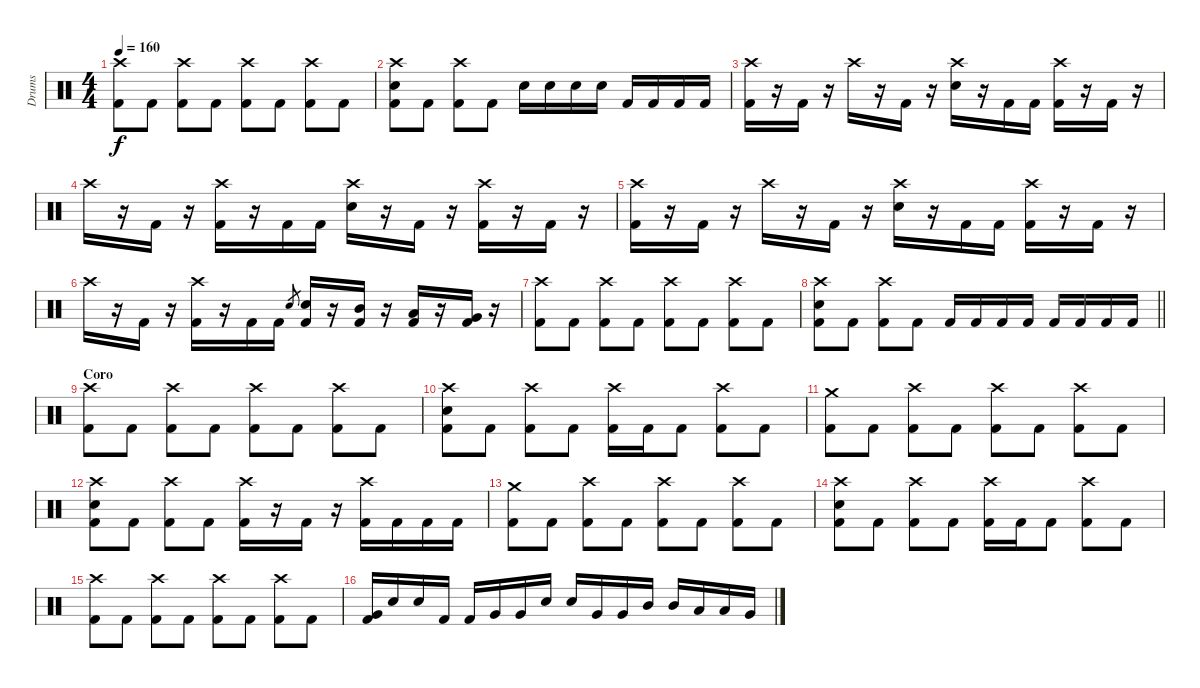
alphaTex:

\track ("Drums" "Drums") {instrument percussion}
\staff {score}
\articulation defaults
\ts (4 4)
\tempo 160
\clef neutral
\ks c
("Crash high (hit)" "Kick (hit) 2").8{dy f} "Kick (hit) 2".8 ("Crash high (hit)" "Kick (hit) 2").8 "Kick (hit) 2".8 ("Crash high (hit)" "Kick (hit) 2").8 "Kick (hit) 2".8 ("Crash high (hit)" "Kick (hit) 2").8 "Kick (hit) 2".8 |
("Crash high (hit)" "Electric Snare (hit)" "Kick (hit) 2").8 "Kick (hit) 2".8 ("Crash high (hit)" "Kick (hit) 2").8 "Kick (hit) 2".8 "Electric Snare (hit)".16 "Electric Snare (hit)".16 "Electric Snare (hit)".16 "Electric Snare (hit)".16 "Kick (hit) 2".16 "Kick (hit) 2".16 "Kick (hit) 2".16 "Kick (hit) 2".16 |
("Crash high (hit)" "Kick (hit) 2").16 r.16 "Kick (hit) 2".16 r.16 "Crash high (hit)".16 r.16 "Kick (hit) 2".16 r.16 ("Crash high (hit)" "Electric Snare (hit)").16 r.16 "Kick (hit) 2".16 "Kick (hit) 2".16 ("Crash high (hit)" "Kick (hit) 2").16 r.16 "Kick (hit) 2".16 r.16 |
"Crash high (hit)".16 r.16 "Kick (hit) 2".16 r.16 ("Crash high (hit)" "Kick (hit) 2").16 r.16 "Kick (hit) 2".16 "Kick (hit) 2".16 ("Crash high (hit)" "Electric Snare (hit)").16 r.16 "Kick (hit) 2".16 r.16 ("Crash high (hit)" "Kick (hit) 2").16 r.16 "Kick (hit) 2".16 r.16 |
("Crash high (hit)" "Kick (hit) 2").16 r.16 "Kick (hit) 2".16 r.16 "Crash high (hit)".16 r.16 "Kick (hit) 2".16 r.16 ("Crash high (hit)" "Electric Snare (hit)").16 r.16 "Kick (hit) 2".16 "Kick (hit) 2".16 ("Crash high (hit)" "Kick (hit) 2").16 r.16 "Kick (hit) 2".16 r.16 |
"Crash high (hit)".16 r.16 "Kick (hit) 2".16 r.16 ("Crash high (hit)" "Kick (hit) 2").16 r.16 "Kick (hit) 2".16 "Kick (hit) 2".16 "Electric Snare (hit)".8{gr} ("Electric Snare (hit)" "Kick (hit) 2").16 r.16 ("Mid Tom (hit)" "Kick (hit) 2").16 r.16 ("Low Tom (hit)" "Kick (hit) 2").16 r.16 ("Very Low Tom (hit)" "Kick (hit) 2").16 r.16 |
("Crash high (hit)" "Kick (hit) 2").8 "Kick (hit) 2".8 ("Crash high (hit)" "Kick (hit) 2").8 "Kick (hit) 2".8 ("Crash high (hit)" "Kick (hit) 2").8 "Kick (hit) 2".8 ("Crash high (hit)" "Kick (hit) 2").8 "Kick (hit) 2".8 |
\barLineRight lightlight
("Crash high (hit)" "Electric Snare (hit)" "Kick (hit) 2").8 "Kick (hit) 2".8 ("Crash high (hit)" "Kick (hit) 2").8 "Kick (hit) 2".8 "Kick (hit) 2".16 "Kick (hit) 2".16 "Kick (hit) 2".16 "Kick (hit) 2".16 "Kick (hit) 2".16 "Kick (hit) 2".16 "Kick (hit) 2".16 "Kick (hit) 2".16 |
\section ("" "Coro")
("Crash high (hit)" "Kick (hit) 2").8 "Kick (hit) 2".8 ("Crash high (hit)" "Kick (hit) 2").8 "Kick (hit) 2".8 ("Crash high (hit)" "Kick (hit) 2").8 "Kick (hit) 2".8 ("Crash high (hit)" "Kick (hit) 2").8 "Kick (hit) 2".8 |
("Crash high (hit)" "Electric Snare (hit)" "Kick (hit) 2").8 "Kick (hit) 2".8 ("Crash high (hit)" "Kick (hit) 2").8 "Kick (hit) 2".8 ("Crash high (hit)" "Kick (hit) 2").16 "Kick (hit) 2".16 "Kick (hit) 2".8 ("Crash high (hit)" "Kick (hit) 2").8 "Kick (hit) 2".8 |
("Crash medium (hit)" "Kick (hit) 2").8 "Kick (hit) 2".8 ("Crash high (hit)" "Kick (hit) 2").8 "Kick (hit) 2".8 ("Crash high (hit)" "Kick (hit) 2").8 "Kick (hit) 2".8 ("Crash high (hit)" "Kick (hit) 2").8 "Kick (hit) 2".8 |
("Crash high (hit)" "Electric Snare (hit)" "Kick (hit) 2").8 "Kick (hit) 2".8 ("Crash high (hit)" "Kick (hit) 2").8 "Kick (hit) 2".8 ("Crash high (hit)" "Kick (hit) 2").16 r.16 "Kick (hit) 2".16 r.16 ("Crash high (hit)" "Kick (hit) 2").16 "Kick (hit) 2".16 "Kick (hit) 2".16 "Kick (hit) 2".16 |
("Crash medium (hit)" "Kick (hit) 2").8 "Kick (hit) 2".8 ("Crash high (hit)" "Kick (hit) 2").8 "Kick (hit) 2".8 ("Crash high (hit)" "Kick (hit) 2").8 "Kick (hit) 2".8 ("Crash high (hit)" "Kick (hit) 2").8 "Kick (hit) 2".8 |
("Crash high (hit)" "Electric Snare (hit)" "Kick (hit) 2").8 "Kick (hit) 2".8 ("Crash high (hit)" "Kick (hit) 2").8 "Kick (hit) 2".8 ("Crash high (hit)" "Kick (hit) 2").16 "Kick (hit) 2".16 "Kick (hit) 2".8 ("Crash high (hit)" "Kick (hit) 2").8 "Kick (hit) 2".8 |
("Crash high (hit)" "Kick (hit) 2").8 "Kick (hit) 2".8 ("Crash high (hit)" "Kick (hit) 2").8 "Kick (hit) 2".8 ("Crash high (hit)" "Kick (hit) 2").8 "Kick (hit) 2".8 ("Crash high (hit)" "Kick (hit) 2").8 "Kick (hit) 2".8 |
("Very Low Tom (hit)" "Kick (hit) 2").16 "Electric Snare (hit)".16 "Electric Snare (hit)".16 "Kick (hit) 2".16 "Kick (hit) 2".16 "Very Low Tom (hit)".16 "Very Low Tom (hit)".16 "Electric Snare (hit)".16 "Electric Snare (hit)".16 "Very Low Tom (hit)".16 "Very Low Tom (hit)".16 "Mid Tom (hit)".16 "Mid Tom (hit)".16 "Low Tom (hit)".16 "Low Tom (hit)".16 "Very Low Tom (hit)".16
